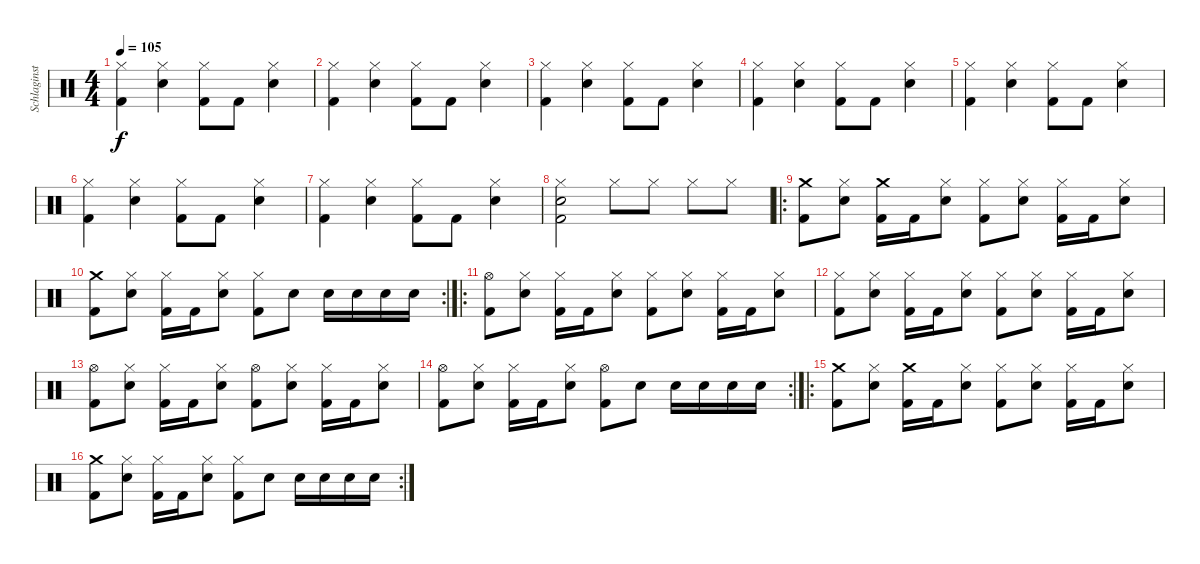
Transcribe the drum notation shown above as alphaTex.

\track ("Schlaginstrumente - Auswahl" "Schlaginst") {instrument percussion}
\staff {score}
\articulation defaults
\ts (4 4)
\tempo 105
\clef neutral
\ks c
("Hi-Hat (closed)" "Kick (hit) 2").4{dy f} ("Hi-Hat (closed)" "Snare (hit) 2").4 ("Hi-Hat (closed)" "Kick (hit) 2").8 "Kick (hit) 2".8 ("Hi-Hat (closed)" "Snare (hit) 2").4 |
("Hi-Hat (closed)" "Kick (hit) 2").4 ("Hi-Hat (closed)" "Snare (hit) 2").4 ("Hi-Hat (closed)" "Kick (hit) 2").8 "Kick (hit) 2".8 ("Hi-Hat (closed)" "Snare (hit) 2").4 |
("Hi-Hat (closed)" "Kick (hit) 2").4 ("Hi-Hat (closed)" "Snare (hit) 2").4 ("Hi-Hat (closed)" "Kick (hit) 2").8 "Kick (hit) 2".8 ("Hi-Hat (closed)" "Snare (hit) 2").4 |
("Hi-Hat (closed)" "Kick (hit) 2").4 ("Hi-Hat (closed)" "Snare (hit) 2").4 ("Hi-Hat (closed)" "Kick (hit) 2").8 "Kick (hit) 2".8 ("Hi-Hat (closed)" "Snare (hit) 2").4 |
("Hi-Hat (closed)" "Kick (hit) 2").4 ("Hi-Hat (closed)" "Snare (hit) 2").4 ("Hi-Hat (closed)" "Kick (hit) 2").8 "Kick (hit) 2".8 ("Hi-Hat (closed)" "Snare (hit) 2").4 |
("Hi-Hat (closed)" "Kick (hit) 2").4 ("Hi-Hat (closed)" "Snare (hit) 2").4 ("Hi-Hat (closed)" "Kick (hit) 2").8 "Kick (hit) 2".8 ("Hi-Hat (closed)" "Snare (hit) 2").4 |
("Hi-Hat (closed)" "Kick (hit) 2").4 ("Hi-Hat (closed)" "Snare (hit) 2").4 ("Hi-Hat (closed)" "Kick (hit) 2").8 "Kick (hit) 2".8 ("Hi-Hat (closed)" "Snare (hit) 2").4 |
("Hi-Hat (closed)" "Snare (hit) 2" "Kick (hit) 2").2 "Hi-Hat (closed)".8 "Hi-Hat (closed)".8 "Hi-Hat (closed)".8 "Hi-Hat (closed)".8 |
\ro
("Crash medium (hit)" "Kick (hit) 2").8 ("Hi-Hat (closed)" "Snare (hit) 2").8 ("Crash medium (hit)" "Kick (hit) 2").16 "Kick (hit) 2".16 ("Hi-Hat (closed)" "Snare (hit) 2").8 ("Hi-Hat (closed)" "Kick (hit) 2").8 ("Hi-Hat (closed)" "Snare (hit) 2").8 ("Hi-Hat (closed)" "Kick (hit) 2").16 "Kick (hit) 2".16 ("Hi-Hat (closed)" "Snare (hit) 2").8 |
\rc 2
("Crash medium (hit)" "Kick (hit) 2").8 ("Hi-Hat (closed)" "Snare (hit) 2").8 ("Hi-Hat (closed)" "Kick (hit) 2").16 "Kick (hit) 2".16 ("Hi-Hat (closed)" "Snare (hit) 2").8 ("Hi-Hat (closed)" "Kick (hit) 2").8 "Snare (hit) 2".8 "Snare (hit) 2".16 "Snare (hit) 2".16 "Snare (hit) 2".16 "Snare (hit) 2".16 |
\ro
("Hi-Hat (open)" "Kick (hit) 2").8 ("Hi-Hat (closed)" "Snare (hit) 2").8 ("Hi-Hat (closed)" "Kick (hit) 2").16 "Kick (hit) 2".16 ("Hi-Hat (closed)" "Snare (hit) 2").8 ("Hi-Hat (closed)" "Kick (hit) 2").8 ("Hi-Hat (closed)" "Snare (hit) 2").8 ("Hi-Hat (closed)" "Kick (hit) 2").16 "Kick (hit) 2".16 ("Hi-Hat (closed)" "Snare (hit) 2").8 |
("Hi-Hat (closed)" "Kick (hit) 2").8 ("Hi-Hat (closed)" "Snare (hit) 2").8 ("Hi-Hat (closed)" "Kick (hit) 2").16 "Kick (hit) 2".16 ("Hi-Hat (closed)" "Snare (hit) 2").8 ("Hi-Hat (closed)" "Kick (hit) 2").8 ("Hi-Hat (closed)" "Snare (hit) 2").8 ("Hi-Hat (closed)" "Kick (hit) 2").16 "Kick (hit) 2".16 ("Hi-Hat (closed)" "Snare (hit) 2").8 |
("Hi-Hat (open)" "Kick (hit) 2").8 ("Hi-Hat (closed)" "Snare (hit) 2").8 ("Hi-Hat (closed)" "Kick (hit) 2").16 "Kick (hit) 2".16 ("Hi-Hat (closed)" "Snare (hit) 2").8 ("Hi-Hat (open)" "Kick (hit) 2").8 ("Hi-Hat (closed)" "Snare (hit) 2").8 ("Hi-Hat (closed)" "Kick (hit) 2").16 "Kick (hit) 2".16 ("Hi-Hat (closed)" "Snare (hit) 2").8 |
\rc 2
("Hi-Hat (open)" "Kick (hit) 2").8 ("Hi-Hat (closed)" "Snare (hit) 2").8 ("Hi-Hat (closed)" "Kick (hit) 2").16 "Kick (hit) 2".16 ("Hi-Hat (closed)" "Snare (hit) 2").8 ("Hi-Hat (open)" "Kick (hit) 2").8 "Snare (hit) 2".8 "Snare (hit) 2".16 "Snare (hit) 2".16 "Snare (hit) 2".16 "Snare (hit) 2".16 |
\ro
("Crash medium (hit)" "Kick (hit) 2").8 ("Hi-Hat (closed)" "Snare (hit) 2").8 ("Crash medium (hit)" "Kick (hit) 2").16 "Kick (hit) 2".16 ("Hi-Hat (closed)" "Snare (hit) 2").8 ("Hi-Hat (closed)" "Kick (hit) 2").8 ("Hi-Hat (closed)" "Snare (hit) 2").8 ("Hi-Hat (closed)" "Kick (hit) 2").16 "Kick (hit) 2".16 ("Hi-Hat (closed)" "Snare (hit) 2").8 |
\rc 2
("Crash medium (hit)" "Kick (hit) 2").8 ("Hi-Hat (closed)" "Snare (hit) 2").8 ("Hi-Hat (closed)" "Kick (hit) 2").16 "Kick (hit) 2".16 ("Hi-Hat (closed)" "Snare (hit) 2").8 ("Hi-Hat (closed)" "Kick (hit) 2").8 "Snare (hit) 2".8 "Snare (hit) 2".16 "Snare (hit) 2".16 "Snare (hit) 2".16 "Snare (hit) 2".16
